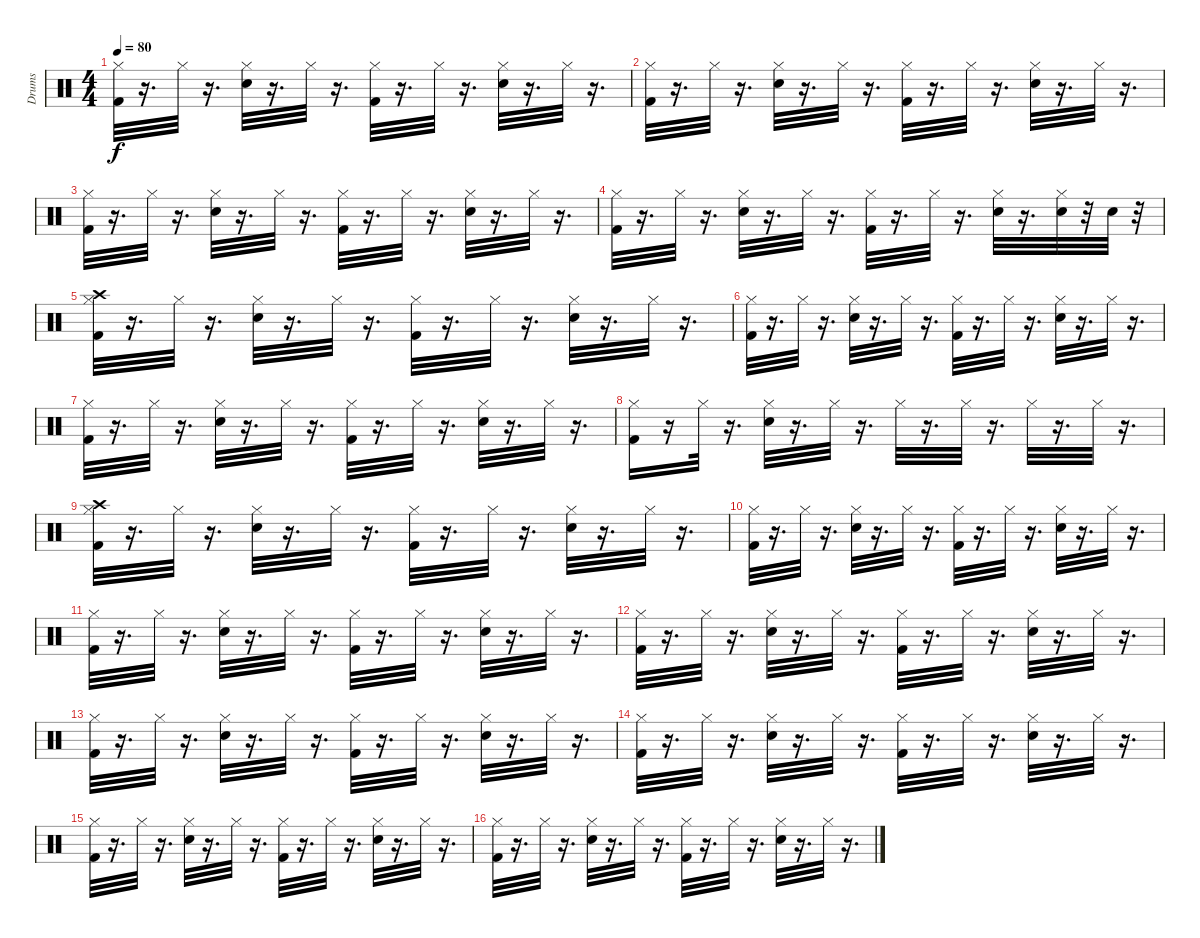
\track ("Drums" "Drums") {instrument percussion}
\staff {score}
\articulation defaults
\ts (4 4)
\tempo 80
\clef neutral
\ks c
("Kick (hit) 2" "Hi-Hat (closed)").32{dy f} r.16{d} "Hi-Hat (closed)".32 r.16{d} ("Hi-Hat (closed)" "Snare (hit) 2").32 r.16{d} "Hi-Hat (closed)".32 r.16{d} ("Hi-Hat (closed)" "Kick (hit) 2").32 r.16{d} "Hi-Hat (closed)".32 r.16{d} ("Hi-Hat (closed)" "Snare (hit) 2").32 r.16{d} "Hi-Hat (closed)".32 r.16{d} |
("Hi-Hat (closed)" "Kick (hit) 2").32 r.16{d} "Hi-Hat (closed)".32 r.16{d} ("Hi-Hat (closed)" "Snare (hit) 2").32 r.16{d} "Hi-Hat (closed)".32 r.16{d} ("Hi-Hat (closed)" "Kick (hit) 2").32 r.16{d} "Hi-Hat (closed)".32 r.16{d} ("Hi-Hat (closed)" "Snare (hit) 2").32 r.16{d} "Hi-Hat (closed)".32 r.16{d} |
("Hi-Hat (closed)" "Kick (hit) 2").32 r.16{d} "Hi-Hat (closed)".32 r.16{d} ("Hi-Hat (closed)" "Snare (hit) 2").32 r.16{d} "Hi-Hat (closed)".32 r.16{d} ("Hi-Hat (closed)" "Kick (hit) 2").32 r.16{d} "Hi-Hat (closed)".32 r.16{d} ("Hi-Hat (closed)" "Snare (hit) 2").32 r.16{d} "Hi-Hat (closed)".32 r.16{d} |
("Hi-Hat (closed)" "Kick (hit) 2").32 r.16{d} "Hi-Hat (closed)".32 r.16{d} ("Hi-Hat (closed)" "Snare (hit) 2").32 r.16{d} "Hi-Hat (closed)".32 r.16{d} ("Hi-Hat (closed)" "Kick (hit) 2").32 r.16{d} "Hi-Hat (closed)".32 r.16{d} ("Hi-Hat (closed)" "Snare (hit) 2").32 r.16{d} ("Snare (hit) 2" "Hi-Hat (closed)").32 r.32 "Snare (hit) 2".32 r.32 |
("Crash high (hit)" "Kick (hit) 2" "Hi-Hat (closed)").32 r.16{d} "Hi-Hat (closed)".32 r.16{d} ("Hi-Hat (closed)" "Snare (hit) 2").32 r.16{d} "Hi-Hat (closed)".32 r.16{d} ("Hi-Hat (closed)" "Kick (hit) 2").32 r.16{d} "Hi-Hat (closed)".32 r.16{d} ("Hi-Hat (closed)" "Snare (hit) 2").32 r.16{d} "Hi-Hat (closed)".32 r.16{d} |
("Hi-Hat (closed)" "Kick (hit) 2").32 r.16{d} "Hi-Hat (closed)".32 r.16{d} ("Hi-Hat (closed)" "Snare (hit) 2").32 r.16{d} "Hi-Hat (closed)".32 r.16{d} ("Hi-Hat (closed)" "Kick (hit) 2").32 r.16{d} "Hi-Hat (closed)".32 r.16{d} ("Hi-Hat (closed)" "Snare (hit) 2").32 r.16{d} "Hi-Hat (closed)".32 r.16{d} |
("Hi-Hat (closed)" "Kick (hit) 2").32 r.16{d} "Hi-Hat (closed)".32 r.16{d} ("Hi-Hat (closed)" "Snare (hit) 2").32 r.16{d} "Hi-Hat (closed)".32 r.16{d} ("Hi-Hat (closed)" "Kick (hit) 2").32 r.16{d} "Hi-Hat (closed)".32 r.16{d} ("Hi-Hat (closed)" "Snare (hit) 2").32 r.16{d} "Hi-Hat (closed)".32 r.16{d} |
("Kick (hit) 2" "Hi-Hat (closed)").16 r.16 "Hi-Hat (closed)".32 r.16{d} ("Snare (hit) 2" "Hi-Hat (closed)").32 r.16{d} "Hi-Hat (closed)".32 r.16{d} "Hi-Hat (closed)".32 r.16{d} "Hi-Hat (closed)".32 r.16{d} "Hi-Hat (closed)".32 r.16{d} "Hi-Hat (closed)".32 r.16{d} |
("Hi-Hat (closed)" "Kick (hit) 2" "Crash high (hit)").32 r.16{d} "Hi-Hat (closed)".32 r.16{d} ("Hi-Hat (closed)" "Snare (hit) 2").32 r.16{d} "Hi-Hat (closed)".32 r.16{d} ("Hi-Hat (closed)" "Kick (hit) 2").32 r.16{d} "Hi-Hat (closed)".32 r.16{d} ("Hi-Hat (closed)" "Snare (hit) 2").32 r.16{d} "Hi-Hat (closed)".32 r.16{d} |
("Kick (hit) 2" "Hi-Hat (closed)").32 r.16{d} "Hi-Hat (closed)".32 r.16{d} ("Hi-Hat (closed)" "Snare (hit) 2").32 r.16{d} "Hi-Hat (closed)".32 r.16{d} ("Hi-Hat (closed)" "Kick (hit) 2").32 r.16{d} "Hi-Hat (closed)".32 r.16{d} ("Hi-Hat (closed)" "Snare (hit) 2").32 r.16{d} "Hi-Hat (closed)".32 r.16{d} |
("Hi-Hat (closed)" "Kick (hit) 2").32 r.16{d} "Hi-Hat (closed)".32 r.16{d} ("Hi-Hat (closed)" "Snare (hit) 2").32 r.16{d} "Hi-Hat (closed)".32 r.16{d} ("Hi-Hat (closed)" "Kick (hit) 2").32 r.16{d} "Hi-Hat (closed)".32 r.16{d} ("Hi-Hat (closed)" "Snare (hit) 2").32 r.16{d} "Hi-Hat (closed)".32 r.16{d} |
("Hi-Hat (closed)" "Kick (hit) 2").32 r.16{d} "Hi-Hat (closed)".32 r.16{d} ("Hi-Hat (closed)" "Snare (hit) 2").32 r.16{d} "Hi-Hat (closed)".32 r.16{d} ("Hi-Hat (closed)" "Kick (hit) 2").32 r.16{d} "Hi-Hat (closed)".32 r.16{d} ("Hi-Hat (closed)" "Snare (hit) 2").32 r.16{d} "Hi-Hat (closed)".32 r.16{d} |
("Kick (hit) 2" "Hi-Hat (closed)").32 r.16{d} "Hi-Hat (closed)".32 r.16{d} ("Hi-Hat (closed)" "Snare (hit) 2").32 r.16{d} "Hi-Hat (closed)".32 r.16{d} ("Hi-Hat (closed)" "Kick (hit) 2").32 r.16{d} "Hi-Hat (closed)".32 r.16{d} ("Hi-Hat (closed)" "Snare (hit) 2").32 r.16{d} "Hi-Hat (closed)".32 r.16{d} |
("Hi-Hat (closed)" "Kick (hit) 2").32 r.16{d} "Hi-Hat (closed)".32 r.16{d} ("Hi-Hat (closed)" "Snare (hit) 2").32 r.16{d} "Hi-Hat (closed)".32 r.16{d} ("Hi-Hat (closed)" "Kick (hit) 2").32 r.16{d} "Hi-Hat (closed)".32 r.16{d} ("Hi-Hat (closed)" "Snare (hit) 2").32 r.16{d} "Hi-Hat (closed)".32 r.16{d} |
("Hi-Hat (closed)" "Kick (hit) 2").32 r.16{d} "Hi-Hat (closed)".32 r.16{d} ("Hi-Hat (closed)" "Snare (hit) 2").32 r.16{d} "Hi-Hat (closed)".32 r.16{d} ("Hi-Hat (closed)" "Kick (hit) 2").32 r.16{d} "Hi-Hat (closed)".32 r.16{d} ("Hi-Hat (closed)" "Snare (hit) 2").32 r.16{d} "Hi-Hat (closed)".32 r.16{d} |
("Hi-Hat (closed)" "Kick (hit) 2").32 r.16{d} "Hi-Hat (closed)".32 r.16{d} ("Hi-Hat (closed)" "Snare (hit) 2").32 r.16{d} "Hi-Hat (closed)".32 r.16{d} ("Hi-Hat (closed)" "Kick (hit) 2").32 r.16{d} "Hi-Hat (closed)".32 r.16{d} ("Hi-Hat (closed)" "Snare (hit) 2").32 r.16{d} "Hi-Hat (closed)".32 r.16{d}
